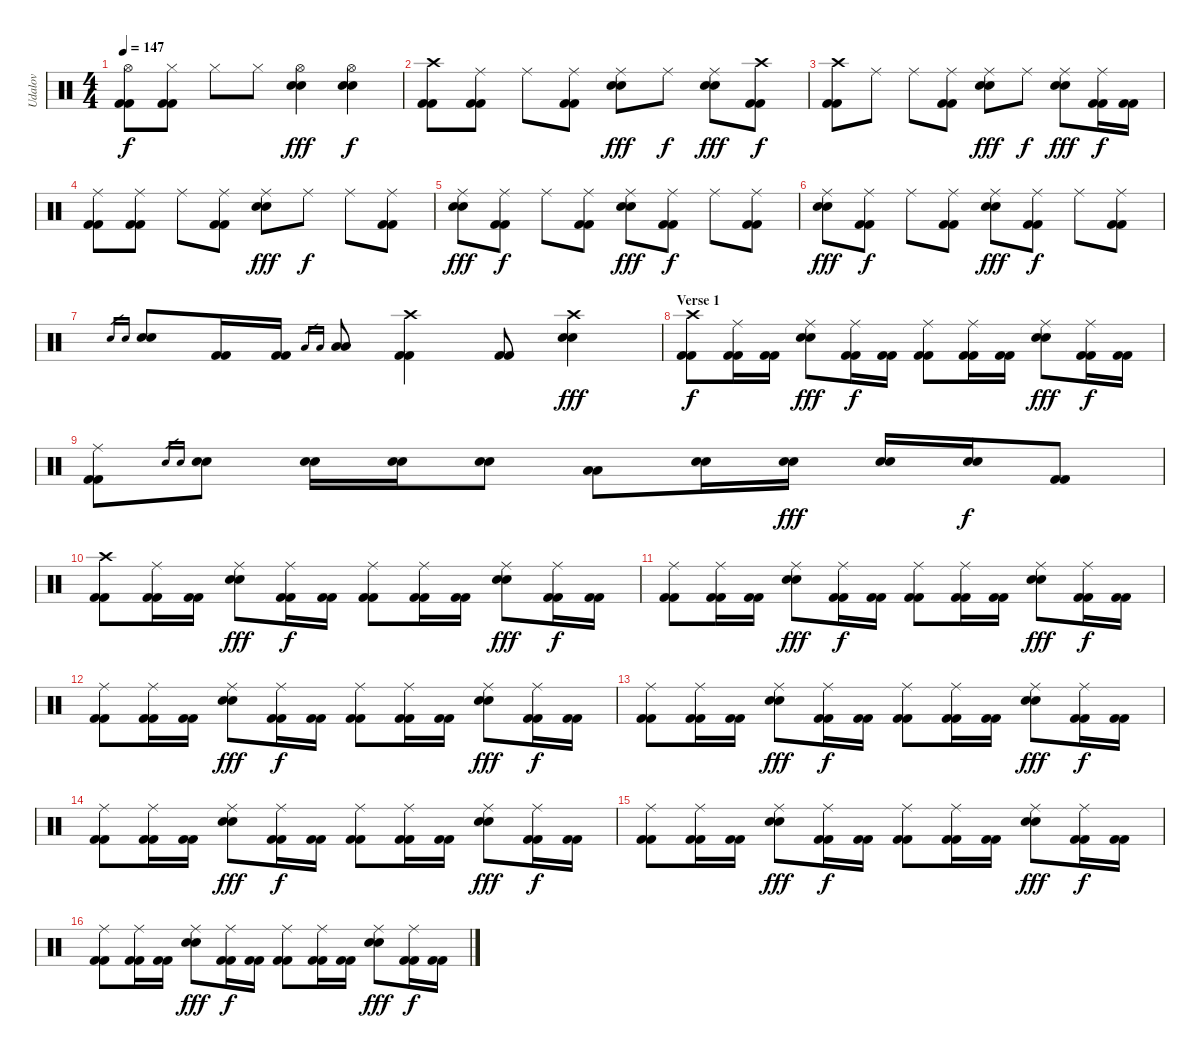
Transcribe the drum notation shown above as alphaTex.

\track ("Udalov" "Udalov") {instrument percussion}
\staff {score}
\articulation defaults
\ts (4 4)
\tempo 147
\clef neutral
\ks c
("Hi-Hat (open)" "Kick (hit) 2" "Kick (hit) 2").8{dy f} ("Hi-Hat (closed)" "Kick (hit) 2" "Kick (hit) 2").8 "Hi-Hat (closed)".8 "Hi-Hat (closed)".8 ("Hi-Hat (open)" "Electric Snare (hit)" "Electric Snare (hit)").4{dy fff} ("Hi-Hat (open)" "Electric Snare (hit)" "Electric Snare (hit)").4{dy f} |
("Crash high (hit)" "Kick (hit) 2" "Kick (hit) 2").8 ("Ride (middle)" "Kick (hit) 2" "Kick (hit) 2").8 "Ride (middle)".8 ("Ride (middle)" "Kick (hit) 2" "Kick (hit) 2").8 ("Ride (middle)" "Electric Snare (hit)" "Electric Snare (hit)").8{dy fff} "Ride (middle)".8{dy f} ("Ride (middle)" "Electric Snare (hit)" "Electric Snare (hit)").8{dy fff} ("Crash high (hit)" "Kick (hit) 2" "Kick (hit) 2").8{dy f} |
("Crash high (hit)" "Kick (hit) 2" "Kick (hit) 2").8 "Ride (middle)".8 "Ride (middle)".8 ("Ride (middle)" "Kick (hit) 2" "Kick (hit) 2").8 ("Ride (middle)" "Electric Snare (hit)" "Electric Snare (hit)").8{dy fff} "Ride (middle)".8{dy f} ("Ride (middle)" "Electric Snare (hit)" "Electric Snare (hit)").8{dy fff} ("Ride (middle)" "Kick (hit) 2" "Kick (hit) 2").16{dy f} ("Kick (hit) 2" "Kick (hit) 2").16 |
("Ride (middle)" "Kick (hit) 2" "Kick (hit) 2").8 ("Ride (middle)" "Kick (hit) 2" "Kick (hit) 2").8 "Ride (middle)".8 ("Ride (middle)" "Kick (hit) 2" "Kick (hit) 2").8 ("Ride (middle)" "Electric Snare (hit)" "Electric Snare (hit)").8{dy fff} "Ride (middle)".8{dy f} "Ride (middle)".8 ("Ride (middle)" "Kick (hit) 2" "Kick (hit) 2").8 |
("Ride (middle)" "Electric Snare (hit)" "Electric Snare (hit)").8{dy fff} ("Ride (middle)" "Kick (hit) 2" "Kick (hit) 2").8{dy f} "Ride (middle)".8 ("Ride (middle)" "Kick (hit) 2" "Kick (hit) 2").8 ("Ride (middle)" "Electric Snare (hit)" "Electric Snare (hit)").8{dy fff} ("Ride (middle)" "Kick (hit) 2" "Kick (hit) 2").8{dy f} "Ride (middle)".8 ("Ride (middle)" "Kick (hit) 2" "Kick (hit) 2").8 |
("Ride (middle)" "Electric Snare (hit)" "Electric Snare (hit)").8{dy fff} ("Ride (middle)" "Kick (hit) 2" "Kick (hit) 2").8{dy f} "Ride (middle)".8 ("Ride (middle)" "Kick (hit) 2" "Kick (hit) 2").8 ("Ride (middle)" "Electric Snare (hit)" "Electric Snare (hit)").8{dy fff} ("Ride (middle)" "Kick (hit) 2" "Kick (hit) 2").8{dy f} "Ride (middle)".8 ("Ride (middle)" "Kick (hit) 2" "Kick (hit) 2").8 |
"Electric Snare (hit)".16{gr} "Electric Snare (hit)".16{gr} ("Electric Snare (hit)" "Electric Snare (hit)").8 ("Kick (hit) 2" "Kick (hit) 2").16 ("Kick (hit) 2" "Kick (hit) 2").16 "Low Tom (hit)".16{gr} "Low Tom (hit)".16{gr} ("Low Tom (hit)" "Low Tom (hit)").8 ("Crash high (hit)" "Kick (hit) 2" "Kick (hit) 2").4 ("Kick (hit) 2" "Kick (hit) 2").8 ("Crash high (hit)" "Electric Snare (hit)" "Electric Snare (hit)").4{dy fff} |
\section ("" "Verse 1")
("Crash high (hit)" "Kick (hit) 2" "Kick (hit) 2").8{dy f} ("Ride (middle)" "Kick (hit) 2" "Kick (hit) 2").16 ("Kick (hit) 2" "Kick (hit) 2").16 ("Ride (middle)" "Electric Snare (hit)" "Electric Snare (hit)").8{dy fff} ("Ride (middle)" "Kick (hit) 2" "Kick (hit) 2").16{dy f} ("Kick (hit) 2" "Kick (hit) 2").16 ("Ride (middle)" "Kick (hit) 2" "Kick (hit) 2").8 ("Ride (middle)" "Kick (hit) 2" "Kick (hit) 2").16 ("Kick (hit) 2" "Kick (hit) 2").16 ("Ride (middle)" "Electric Snare (hit)" "Electric Snare (hit)").8{dy fff} ("Ride (middle)" "Kick (hit) 2" "Kick (hit) 2").16{dy f} ("Kick (hit) 2" "Kick (hit) 2").16 |
("Ride (middle)" "Kick (hit) 2" "Kick (hit) 2").8 "Electric Snare (hit)".16{gr} "Electric Snare (hit)".16{gr} ("Electric Snare (hit)" "Electric Snare (hit)").8 ("Electric Snare (hit)" "Electric Snare (hit)").16 ("Electric Snare (hit)" "Electric Snare (hit)").16 ("Electric Snare (hit)" "Electric Snare (hit)").8 ("Low Tom (hit)" "Low Tom (hit)").8 ("Electric Snare (hit)" "Electric Snare (hit)").16 ("Electric Snare (hit)" "Electric Snare (hit)").16{dy fff} ("Electric Snare (hit)" "Electric Snare (hit)").16 ("Electric Snare (hit)" "Electric Snare (hit)").16{dy f} ("Kick (hit) 2" "Kick (hit) 2").8 |
("Crash high (hit)" "Kick (hit) 2" "Kick (hit) 2").8 ("Ride (middle)" "Kick (hit) 2" "Kick (hit) 2").16 ("Kick (hit) 2" "Kick (hit) 2").16 ("Ride (middle)" "Electric Snare (hit)" "Electric Snare (hit)").8{dy fff} ("Ride (middle)" "Kick (hit) 2" "Kick (hit) 2").16{dy f} ("Kick (hit) 2" "Kick (hit) 2").16 ("Ride (middle)" "Kick (hit) 2" "Kick (hit) 2").8 ("Ride (middle)" "Kick (hit) 2" "Kick (hit) 2").16 ("Kick (hit) 2" "Kick (hit) 2").16 ("Ride (middle)" "Electric Snare (hit)" "Electric Snare (hit)").8{dy fff} ("Ride (middle)" "Kick (hit) 2" "Kick (hit) 2").16{dy f} ("Kick (hit) 2" "Kick (hit) 2").16 |
("Ride (middle)" "Kick (hit) 2" "Kick (hit) 2").8 ("Ride (middle)" "Kick (hit) 2" "Kick (hit) 2").16 ("Kick (hit) 2" "Kick (hit) 2").16 ("Ride (middle)" "Electric Snare (hit)" "Electric Snare (hit)").8{dy fff} ("Ride (middle)" "Kick (hit) 2" "Kick (hit) 2").16{dy f} ("Kick (hit) 2" "Kick (hit) 2").16 ("Ride (middle)" "Kick (hit) 2" "Kick (hit) 2").8 ("Ride (middle)" "Kick (hit) 2" "Kick (hit) 2").16 ("Kick (hit) 2" "Kick (hit) 2").16 ("Ride (middle)" "Electric Snare (hit)" "Electric Snare (hit)").8{dy fff} ("Ride (middle)" "Kick (hit) 2" "Kick (hit) 2").16{dy f} ("Kick (hit) 2" "Kick (hit) 2").16 |
("Ride (middle)" "Kick (hit) 2" "Kick (hit) 2").8 ("Ride (middle)" "Kick (hit) 2" "Kick (hit) 2").16 ("Kick (hit) 2" "Kick (hit) 2").16 ("Ride (middle)" "Electric Snare (hit)" "Electric Snare (hit)").8{dy fff} ("Ride (middle)" "Kick (hit) 2" "Kick (hit) 2").16{dy f} ("Kick (hit) 2" "Kick (hit) 2").16 ("Ride (middle)" "Kick (hit) 2" "Kick (hit) 2").8 ("Ride (middle)" "Kick (hit) 2" "Kick (hit) 2").16 ("Kick (hit) 2" "Kick (hit) 2").16 ("Ride (middle)" "Electric Snare (hit)" "Electric Snare (hit)").8{dy fff} ("Ride (middle)" "Kick (hit) 2" "Kick (hit) 2").16{dy f} ("Kick (hit) 2" "Kick (hit) 2").16 |
("Ride (middle)" "Kick (hit) 2" "Kick (hit) 2").8 ("Ride (middle)" "Kick (hit) 2" "Kick (hit) 2").16 ("Kick (hit) 2" "Kick (hit) 2").16 ("Ride (middle)" "Electric Snare (hit)" "Electric Snare (hit)").8{dy fff} ("Ride (middle)" "Kick (hit) 2" "Kick (hit) 2").16{dy f} ("Kick (hit) 2" "Kick (hit) 2").16 ("Ride (middle)" "Kick (hit) 2" "Kick (hit) 2").8 ("Ride (middle)" "Kick (hit) 2" "Kick (hit) 2").16 ("Kick (hit) 2" "Kick (hit) 2").16 ("Ride (middle)" "Electric Snare (hit)" "Electric Snare (hit)").8{dy fff} ("Ride (middle)" "Kick (hit) 2" "Kick (hit) 2").16{dy f} ("Kick (hit) 2" "Kick (hit) 2").16 |
("Ride (middle)" "Kick (hit) 2" "Kick (hit) 2").8 ("Ride (middle)" "Kick (hit) 2" "Kick (hit) 2").16 ("Kick (hit) 2" "Kick (hit) 2").16 ("Ride (middle)" "Electric Snare (hit)" "Electric Snare (hit)").8{dy fff} ("Ride (middle)" "Kick (hit) 2" "Kick (hit) 2").16{dy f} ("Kick (hit) 2" "Kick (hit) 2").16 ("Ride (middle)" "Kick (hit) 2" "Kick (hit) 2").8 ("Ride (middle)" "Kick (hit) 2" "Kick (hit) 2").16 ("Kick (hit) 2" "Kick (hit) 2").16 ("Ride (middle)" "Electric Snare (hit)" "Electric Snare (hit)").8{dy fff} ("Ride (middle)" "Kick (hit) 2" "Kick (hit) 2").16{dy f} ("Kick (hit) 2" "Kick (hit) 2").16 |
("Ride (middle)" "Kick (hit) 2" "Kick (hit) 2").8 ("Ride (middle)" "Kick (hit) 2" "Kick (hit) 2").16 ("Kick (hit) 2" "Kick (hit) 2").16 ("Ride (middle)" "Electric Snare (hit)" "Electric Snare (hit)").8{dy fff} ("Ride (middle)" "Kick (hit) 2" "Kick (hit) 2").16{dy f} ("Kick (hit) 2" "Kick (hit) 2").16 ("Ride (middle)" "Kick (hit) 2" "Kick (hit) 2").8 ("Ride (middle)" "Kick (hit) 2" "Kick (hit) 2").16 ("Kick (hit) 2" "Kick (hit) 2").16 ("Ride (middle)" "Electric Snare (hit)" "Electric Snare (hit)").8{dy fff} ("Ride (middle)" "Kick (hit) 2" "Kick (hit) 2").16{dy f} ("Kick (hit) 2" "Kick (hit) 2").16 |
("Ride (middle)" "Kick (hit) 2" "Kick (hit) 2").8 ("Ride (middle)" "Kick (hit) 2" "Kick (hit) 2").16 ("Kick (hit) 2" "Kick (hit) 2").16 ("Ride (middle)" "Electric Snare (hit)" "Electric Snare (hit)").8{dy fff} ("Ride (middle)" "Kick (hit) 2" "Kick (hit) 2").16{dy f} ("Kick (hit) 2" "Kick (hit) 2").16 ("Ride (middle)" "Kick (hit) 2" "Kick (hit) 2").8 ("Ride (middle)" "Kick (hit) 2" "Kick (hit) 2").16 ("Kick (hit) 2" "Kick (hit) 2").16 ("Ride (middle)" "Electric Snare (hit)" "Electric Snare (hit)").8{dy fff} ("Ride (middle)" "Kick (hit) 2" "Kick (hit) 2").16{dy f} ("Kick (hit) 2" "Kick (hit) 2").16
